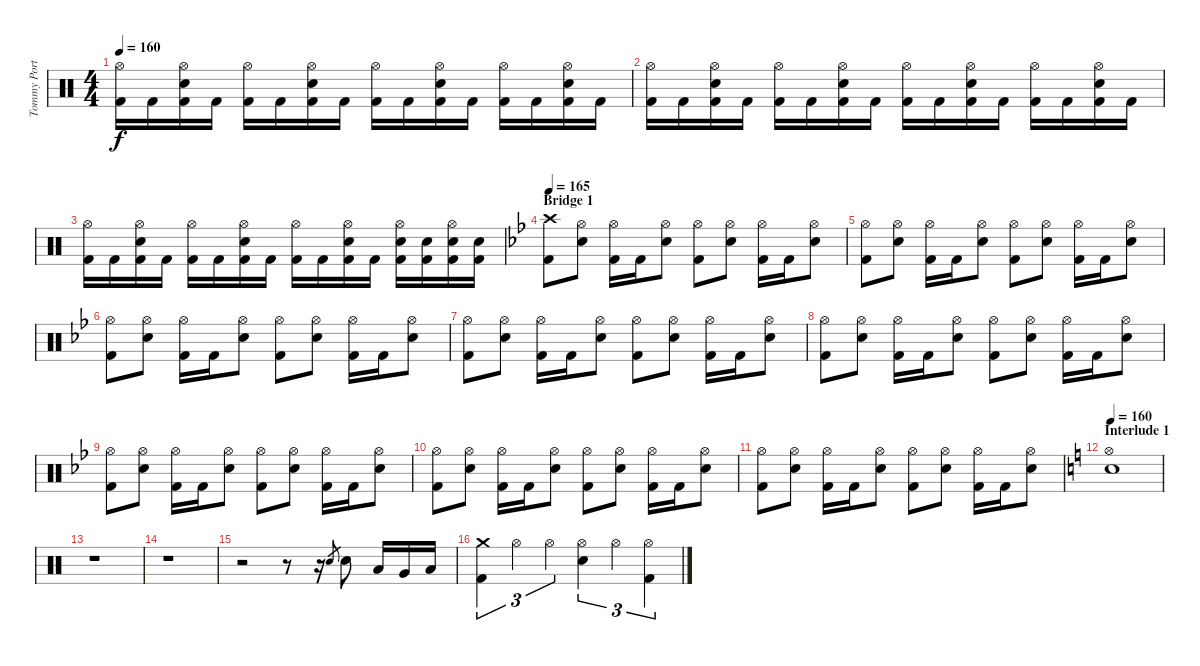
\track ("Tommy Portimo" "Tommy Port") {instrument percussion}
\staff {score}
\articulation defaults
\ts (4 4)
\tempo 160
\clef neutral
\ks c
("Hi-Hat (open)" "Kick (hit) 2").16{dy f} "Kick (hit) 2".16 ("Hi-Hat (open)" "Snare (hit) 2" "Kick (hit) 2").16 "Kick (hit) 2".16 ("Hi-Hat (open)" "Kick (hit) 2").16 "Kick (hit) 2".16 ("Hi-Hat (open)" "Snare (hit) 2" "Kick (hit) 2").16 "Kick (hit) 2".16 ("Hi-Hat (open)" "Kick (hit) 2").16 "Kick (hit) 2".16 ("Hi-Hat (open)" "Snare (hit) 2" "Kick (hit) 2").16 "Kick (hit) 2".16 ("Hi-Hat (open)" "Kick (hit) 2").16 "Kick (hit) 2".16 ("Hi-Hat (open)" "Snare (hit) 2" "Kick (hit) 2").16 "Kick (hit) 2".16 |
("Hi-Hat (open)" "Kick (hit) 2").16 "Kick (hit) 2".16 ("Hi-Hat (open)" "Snare (hit) 2" "Kick (hit) 2").16 "Kick (hit) 2".16 ("Hi-Hat (open)" "Kick (hit) 2").16 "Kick (hit) 2".16 ("Hi-Hat (open)" "Snare (hit) 2" "Kick (hit) 2").16 "Kick (hit) 2".16 ("Hi-Hat (open)" "Kick (hit) 2").16 "Kick (hit) 2".16 ("Hi-Hat (open)" "Snare (hit) 2" "Kick (hit) 2").16 "Kick (hit) 2".16 ("Hi-Hat (open)" "Kick (hit) 2").16 "Kick (hit) 2".16 ("Hi-Hat (open)" "Snare (hit) 2" "Kick (hit) 2").16 "Kick (hit) 2".16 |
("Hi-Hat (open)" "Kick (hit) 2").16 "Kick (hit) 2".16 ("Hi-Hat (open)" "Snare (hit) 2" "Kick (hit) 2").16 "Kick (hit) 2".16 ("Hi-Hat (open)" "Kick (hit) 2").16 "Kick (hit) 2".16 ("Hi-Hat (open)" "Snare (hit) 2" "Kick (hit) 2").16 "Kick (hit) 2".16 ("Hi-Hat (open)" "Kick (hit) 2").16 "Kick (hit) 2".16 ("Hi-Hat (open)" "Snare (hit) 2" "Kick (hit) 2").16 "Kick (hit) 2".16 ("Hi-Hat (open)" "Snare (hit) 2" "Kick (hit) 2").16 ("Snare (hit) 2" "Kick (hit) 2").16 ("Hi-Hat (open)" "Snare (hit) 2" "Kick (hit) 2").16 ("Snare (hit) 2" "Kick (hit) 2").16 |
\section ("" "Bridge 1")
\tempo 165
\ks gminor
("Crash high (hit)" "Kick (hit) 2").8 ("Hi-Hat (open)" "Snare (hit) 2").8 ("Hi-Hat (open)" "Kick (hit) 2").16 "Kick (hit) 2".16 ("Hi-Hat (open)" "Snare (hit) 2").8 ("Hi-Hat (open)" "Kick (hit) 2").8 ("Hi-Hat (open)" "Snare (hit) 2").8 ("Hi-Hat (open)" "Kick (hit) 2").16 "Kick (hit) 2".16 ("Hi-Hat (open)" "Snare (hit) 2").8 |
("Hi-Hat (open)" "Kick (hit) 2").8 ("Hi-Hat (open)" "Snare (hit) 2").8 ("Hi-Hat (open)" "Kick (hit) 2").16 "Kick (hit) 2".16 ("Hi-Hat (open)" "Snare (hit) 2").8 ("Hi-Hat (open)" "Kick (hit) 2").8 ("Hi-Hat (open)" "Snare (hit) 2").8 ("Hi-Hat (open)" "Kick (hit) 2").16 "Kick (hit) 2".16 ("Hi-Hat (open)" "Snare (hit) 2").8 |
("Hi-Hat (open)" "Kick (hit) 2").8 ("Hi-Hat (open)" "Snare (hit) 2").8 ("Hi-Hat (open)" "Kick (hit) 2").16 "Kick (hit) 2".16 ("Hi-Hat (open)" "Snare (hit) 2").8 ("Hi-Hat (open)" "Kick (hit) 2").8 ("Hi-Hat (open)" "Snare (hit) 2").8 ("Hi-Hat (open)" "Kick (hit) 2").16 "Kick (hit) 2".16 ("Hi-Hat (open)" "Snare (hit) 2").8 |
("Hi-Hat (open)" "Kick (hit) 2").8 ("Hi-Hat (open)" "Snare (hit) 2").8 ("Hi-Hat (open)" "Kick (hit) 2").16 "Kick (hit) 2".16 ("Hi-Hat (open)" "Snare (hit) 2").8 ("Hi-Hat (open)" "Kick (hit) 2").8 ("Hi-Hat (open)" "Snare (hit) 2").8 ("Hi-Hat (open)" "Kick (hit) 2").16 "Kick (hit) 2".16 ("Hi-Hat (open)" "Snare (hit) 2").8 |
("Hi-Hat (open)" "Kick (hit) 2").8 ("Hi-Hat (open)" "Snare (hit) 2").8 ("Hi-Hat (open)" "Kick (hit) 2").16 "Kick (hit) 2".16 ("Hi-Hat (open)" "Snare (hit) 2").8 ("Hi-Hat (open)" "Kick (hit) 2").8 ("Hi-Hat (open)" "Snare (hit) 2").8 ("Hi-Hat (open)" "Kick (hit) 2").16 "Kick (hit) 2".16 ("Hi-Hat (open)" "Snare (hit) 2").8 |
("Hi-Hat (open)" "Kick (hit) 2").8 ("Hi-Hat (open)" "Snare (hit) 2").8 ("Hi-Hat (open)" "Kick (hit) 2").16 "Kick (hit) 2".16 ("Hi-Hat (open)" "Snare (hit) 2").8 ("Hi-Hat (open)" "Kick (hit) 2").8 ("Hi-Hat (open)" "Snare (hit) 2").8 ("Hi-Hat (open)" "Kick (hit) 2").16 "Kick (hit) 2".16 ("Hi-Hat (open)" "Snare (hit) 2").8 |
("Hi-Hat (open)" "Kick (hit) 2").8 ("Hi-Hat (open)" "Snare (hit) 2").8 ("Hi-Hat (open)" "Kick (hit) 2").16 "Kick (hit) 2".16 ("Hi-Hat (open)" "Snare (hit) 2").8 ("Hi-Hat (open)" "Kick (hit) 2").8 ("Hi-Hat (open)" "Snare (hit) 2").8 ("Hi-Hat (open)" "Kick (hit) 2").16 "Kick (hit) 2".16 ("Hi-Hat (open)" "Snare (hit) 2").8 |
("Hi-Hat (open)" "Kick (hit) 2").8 ("Hi-Hat (open)" "Snare (hit) 2").8 ("Hi-Hat (open)" "Kick (hit) 2").16 "Kick (hit) 2".16 ("Hi-Hat (open)" "Snare (hit) 2").8 ("Hi-Hat (open)" "Kick (hit) 2").8 ("Hi-Hat (open)" "Snare (hit) 2").8 ("Hi-Hat (open)" "Kick (hit) 2").16 "Kick (hit) 2".16 ("Hi-Hat (open)" "Snare (hit) 2").8 |
\section ("" "Interlude 1")
\tempo 160
\ks c
("Hi-Hat (open)" "Snare (hit) 2").1 |
r.1 |
r.1 |
r.2 r.8 r.16 "Snare (hit) 2".8{gr} "Snare (hit) 2".8 "Low Tom (hit)".16 "Very Low Tom (hit)".16 "Low Floor Tom (hit)".16 |
("Crash medium (hit)" "Kick (hit) 2").4{tu (3 2)} "Hi-Hat (open)".4{tu (3 2)} "Hi-Hat (open)".4{tu (3 2)} ("Hi-Hat (open)" "Snare (hit) 2").4{tu (3 2)} "Hi-Hat (open)".4{tu (3 2)} ("Hi-Hat (open)" "Kick (hit) 2").4{tu (3 2)}
